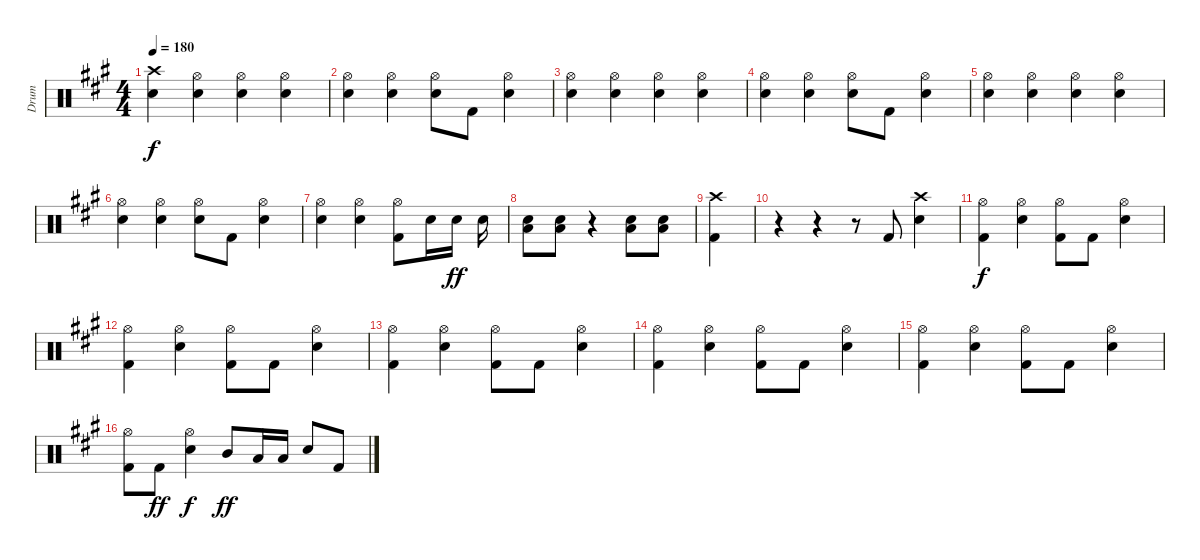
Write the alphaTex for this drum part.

\track ("Drum" "Drum") {instrument percussion}
\staff {score}
\articulation defaults
\ts (4 4)
\tempo 180
\clef neutral
\ks a
("Crash high (hit)" "Snare (hit) 2").4{dy f} ("Hi-Hat (open)" "Snare (hit) 2").4 ("Hi-Hat (open)" "Snare (hit) 2").4 ("Hi-Hat (open)" "Snare (hit) 2").4 |
("Hi-Hat (open)" "Snare (hit) 2").4 ("Hi-Hat (open)" "Snare (hit) 2").4 ("Hi-Hat (open)" "Snare (hit) 2").8 "Kick (hit) 2".8 ("Hi-Hat (open)" "Snare (hit) 2").4 |
("Hi-Hat (open)" "Snare (hit) 2").4 ("Hi-Hat (open)" "Snare (hit) 2").4 ("Hi-Hat (open)" "Snare (hit) 2").4 ("Hi-Hat (open)" "Snare (hit) 2").4 |
("Hi-Hat (open)" "Snare (hit) 2").4 ("Hi-Hat (open)" "Snare (hit) 2").4 ("Hi-Hat (open)" "Snare (hit) 2").8 "Kick (hit) 2".8 ("Hi-Hat (open)" "Snare (hit) 2").4 |
("Hi-Hat (open)" "Snare (hit) 2").4 ("Hi-Hat (open)" "Snare (hit) 2").4 ("Hi-Hat (open)" "Snare (hit) 2").4 ("Hi-Hat (open)" "Snare (hit) 2").4 |
("Hi-Hat (open)" "Snare (hit) 2").4 ("Hi-Hat (open)" "Snare (hit) 2").4 ("Hi-Hat (open)" "Snare (hit) 2").8 "Kick (hit) 2".8 ("Hi-Hat (open)" "Snare (hit) 2").4 |
("Hi-Hat (open)" "Snare (hit) 2").4 ("Hi-Hat (open)" "Snare (hit) 2").4 ("Hi-Hat (open)" "Kick (hit) 2").8 "Snare (hit) 2".16 "Snare (hit) 2".16{dy ff} "Snare (hit) 2".16 |
("Snare (hit) 2" "Low Tom (hit)").8 ("Snare (hit) 2" "Low Tom (hit)").8 r.4 ("Snare (hit) 2" "Low Tom (hit)").8 ("Snare (hit) 2" "Low Tom (hit)").8 |
("Crash high (hit)" "Kick (hit) 2").4 |
r.4 r.4 r.8 "Kick (hit) 2".8 ("Crash high (hit)" "Snare (hit) 2").4 |
("Hi-Hat (open)" "Kick (hit) 2").4{dy f} ("Hi-Hat (open)" "Snare (hit) 2").4 ("Hi-Hat (open)" "Kick (hit) 2").8 "Kick (hit) 2".8 ("Hi-Hat (open)" "Snare (hit) 2").4 |
("Hi-Hat (open)" "Kick (hit) 2").4 ("Hi-Hat (open)" "Snare (hit) 2").4 ("Hi-Hat (open)" "Kick (hit) 2").8 "Kick (hit) 2".8 ("Hi-Hat (open)" "Snare (hit) 2").4 |
("Hi-Hat (open)" "Kick (hit) 2").4 ("Hi-Hat (open)" "Snare (hit) 2").4 ("Hi-Hat (open)" "Kick (hit) 2").8 "Kick (hit) 2".8 ("Hi-Hat (open)" "Snare (hit) 2").4 |
("Hi-Hat (open)" "Kick (hit) 2").4 ("Hi-Hat (open)" "Snare (hit) 2").4 ("Hi-Hat (open)" "Kick (hit) 2").8 "Kick (hit) 2".8 ("Hi-Hat (open)" "Snare (hit) 2").4 |
("Hi-Hat (open)" "Kick (hit) 2").4 ("Hi-Hat (open)" "Snare (hit) 2").4 ("Hi-Hat (open)" "Kick (hit) 2").8 "Kick (hit) 2".8 ("Hi-Hat (open)" "Snare (hit) 2").4 |
("Hi-Hat (open)" "Kick (hit) 2").8 "Kick (hit) 2".8{dy ff} ("Hi-Hat (open)" "Snare (hit) 2").4{dy f} "Mid Tom (hit)".8{dy ff} "Low Tom (hit)".16 "Low Tom (hit)".16 "Snare (hit) 2".8 "Kick (hit) 2".8
